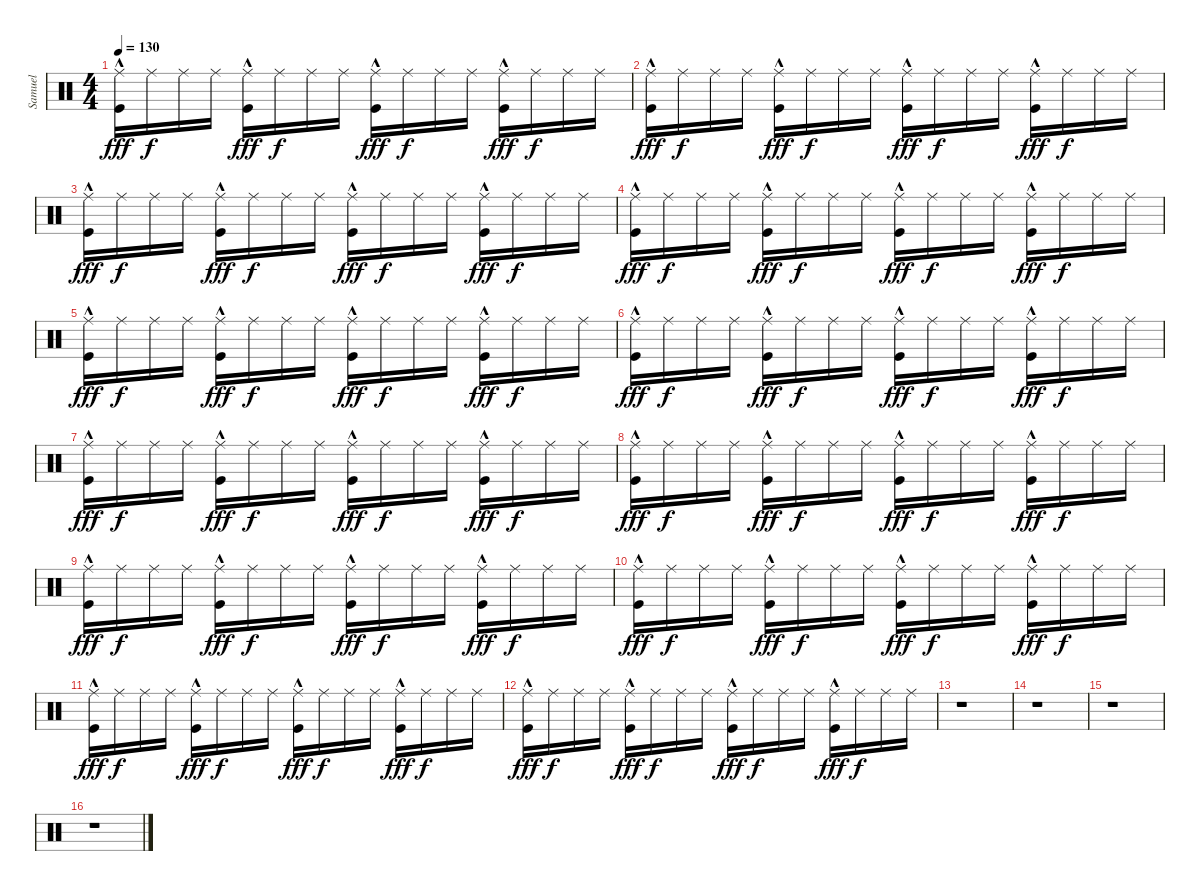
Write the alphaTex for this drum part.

\track ("Samuel" "Samuel") {instrument percussion}
\staff {score}
\articulation defaults
\ts (4 4)
\tempo 130
\clef neutral
\ks c
("Ride (middle)" "Kick (hit)"{hac}).16{dy fff} "Ride (middle)".16{dy f} "Ride (middle)".16 "Ride (middle)".16 ("Ride (middle)" "Kick (hit)"{hac}).16{dy fff} "Ride (middle)".16{dy f} "Ride (middle)".16 "Ride (middle)".16 ("Ride (middle)" "Kick (hit)"{hac}).16{dy fff} "Ride (middle)".16{dy f} "Ride (middle)".16 "Ride (middle)".16 ("Ride (middle)" "Kick (hit)"{hac}).16{dy fff} "Ride (middle)".16{dy f} "Ride (middle)".16 "Ride (middle)".16 |
("Ride (middle)" "Kick (hit)"{hac}).16{dy fff} "Ride (middle)".16{dy f} "Ride (middle)".16 "Ride (middle)".16 ("Ride (middle)" "Kick (hit)"{hac}).16{dy fff} "Ride (middle)".16{dy f} "Ride (middle)".16 "Ride (middle)".16 ("Ride (middle)" "Kick (hit)"{hac}).16{dy fff} "Ride (middle)".16{dy f} "Ride (middle)".16 "Ride (middle)".16 ("Ride (middle)" "Kick (hit)"{hac}).16{dy fff} "Ride (middle)".16{dy f} "Ride (middle)".16 "Ride (middle)".16 |
("Ride (middle)" "Kick (hit)"{hac}).16{dy fff} "Ride (middle)".16{dy f} "Ride (middle)".16 "Ride (middle)".16 ("Ride (middle)" "Kick (hit)"{hac}).16{dy fff} "Ride (middle)".16{dy f} "Ride (middle)".16 "Ride (middle)".16 ("Ride (middle)" "Kick (hit)"{hac}).16{dy fff} "Ride (middle)".16{dy f} "Ride (middle)".16 "Ride (middle)".16 ("Ride (middle)" "Kick (hit)"{hac}).16{dy fff} "Ride (middle)".16{dy f} "Ride (middle)".16 "Ride (middle)".16 |
("Ride (middle)" "Kick (hit)"{hac}).16{dy fff} "Ride (middle)".16{dy f} "Ride (middle)".16 "Ride (middle)".16 ("Ride (middle)" "Kick (hit)"{hac}).16{dy fff} "Ride (middle)".16{dy f} "Ride (middle)".16 "Ride (middle)".16 ("Ride (middle)" "Kick (hit)"{hac}).16{dy fff} "Ride (middle)".16{dy f} "Ride (middle)".16 "Ride (middle)".16 ("Ride (middle)" "Kick (hit)"{hac}).16{dy fff} "Ride (middle)".16{dy f} "Ride (middle)".16 "Ride (middle)".16 |
("Ride (middle)" "Kick (hit)"{hac}).16{dy fff} "Ride (middle)".16{dy f} "Ride (middle)".16 "Ride (middle)".16 ("Ride (middle)" "Kick (hit)"{hac}).16{dy fff} "Ride (middle)".16{dy f} "Ride (middle)".16 "Ride (middle)".16 ("Ride (middle)" "Kick (hit)"{hac}).16{dy fff} "Ride (middle)".16{dy f} "Ride (middle)".16 "Ride (middle)".16 ("Ride (middle)" "Kick (hit)"{hac}).16{dy fff} "Ride (middle)".16{dy f} "Ride (middle)".16 "Ride (middle)".16 |
("Ride (middle)" "Kick (hit)"{hac}).16{dy fff} "Ride (middle)".16{dy f} "Ride (middle)".16 "Ride (middle)".16 ("Ride (middle)" "Kick (hit)"{hac}).16{dy fff} "Ride (middle)".16{dy f} "Ride (middle)".16 "Ride (middle)".16 ("Ride (middle)" "Kick (hit)"{hac}).16{dy fff} "Ride (middle)".16{dy f} "Ride (middle)".16 "Ride (middle)".16 ("Ride (middle)" "Kick (hit)"{hac}).16{dy fff} "Ride (middle)".16{dy f} "Ride (middle)".16 "Ride (middle)".16 |
("Ride (middle)" "Kick (hit)"{hac}).16{dy fff} "Ride (middle)".16{dy f} "Ride (middle)".16 "Ride (middle)".16 ("Ride (middle)" "Kick (hit)"{hac}).16{dy fff} "Ride (middle)".16{dy f} "Ride (middle)".16 "Ride (middle)".16 ("Ride (middle)" "Kick (hit)"{hac}).16{dy fff} "Ride (middle)".16{dy f} "Ride (middle)".16 "Ride (middle)".16 ("Ride (middle)" "Kick (hit)"{hac}).16{dy fff} "Ride (middle)".16{dy f} "Ride (middle)".16 "Ride (middle)".16 |
("Ride (middle)" "Kick (hit)"{hac}).16{dy fff} "Ride (middle)".16{dy f} "Ride (middle)".16 "Ride (middle)".16 ("Ride (middle)" "Kick (hit)"{hac}).16{dy fff} "Ride (middle)".16{dy f} "Ride (middle)".16 "Ride (middle)".16 ("Ride (middle)" "Kick (hit)"{hac}).16{dy fff} "Ride (middle)".16{dy f} "Ride (middle)".16 "Ride (middle)".16 ("Ride (middle)" "Kick (hit)"{hac}).16{dy fff} "Ride (middle)".16{dy f} "Ride (middle)".16 "Ride (middle)".16 |
("Ride (middle)" "Kick (hit)"{hac}).16{dy fff} "Ride (middle)".16{dy f} "Ride (middle)".16 "Ride (middle)".16 ("Ride (middle)" "Kick (hit)"{hac}).16{dy fff} "Ride (middle)".16{dy f} "Ride (middle)".16 "Ride (middle)".16 ("Ride (middle)" "Kick (hit)"{hac}).16{dy fff} "Ride (middle)".16{dy f} "Ride (middle)".16 "Ride (middle)".16 ("Ride (middle)" "Kick (hit)"{hac}).16{dy fff} "Ride (middle)".16{dy f} "Ride (middle)".16 "Ride (middle)".16 |
("Ride (middle)" "Kick (hit)"{hac}).16{dy fff} "Ride (middle)".16{dy f} "Ride (middle)".16 "Ride (middle)".16 ("Ride (middle)" "Kick (hit)"{hac}).16{dy fff} "Ride (middle)".16{dy f} "Ride (middle)".16 "Ride (middle)".16 ("Ride (middle)" "Kick (hit)"{hac}).16{dy fff} "Ride (middle)".16{dy f} "Ride (middle)".16 "Ride (middle)".16 ("Ride (middle)" "Kick (hit)"{hac}).16{dy fff} "Ride (middle)".16{dy f} "Ride (middle)".16 "Ride (middle)".16 |
("Ride (middle)" "Kick (hit)"{hac}).16{dy fff} "Ride (middle)".16{dy f} "Ride (middle)".16 "Ride (middle)".16 ("Ride (middle)" "Kick (hit)"{hac}).16{dy fff} "Ride (middle)".16{dy f} "Ride (middle)".16 "Ride (middle)".16 ("Ride (middle)" "Kick (hit)"{hac}).16{dy fff} "Ride (middle)".16{dy f} "Ride (middle)".16 "Ride (middle)".16 ("Ride (middle)" "Kick (hit)"{hac}).16{dy fff} "Ride (middle)".16{dy f} "Ride (middle)".16 "Ride (middle)".16 |
("Ride (middle)" "Kick (hit)"{hac}).16{dy fff} "Ride (middle)".16{dy f} "Ride (middle)".16 "Ride (middle)".16 ("Ride (middle)" "Kick (hit)"{hac}).16{dy fff} "Ride (middle)".16{dy f} "Ride (middle)".16 "Ride (middle)".16 ("Ride (middle)" "Kick (hit)"{hac}).16{dy fff} "Ride (middle)".16{dy f} "Ride (middle)".16 "Ride (middle)".16 ("Ride (middle)" "Kick (hit)"{hac}).16{dy fff} "Ride (middle)".16{dy f} "Ride (middle)".16 "Ride (middle)".16 |
r.1 |
r.1 |
r.1 |
r.1
